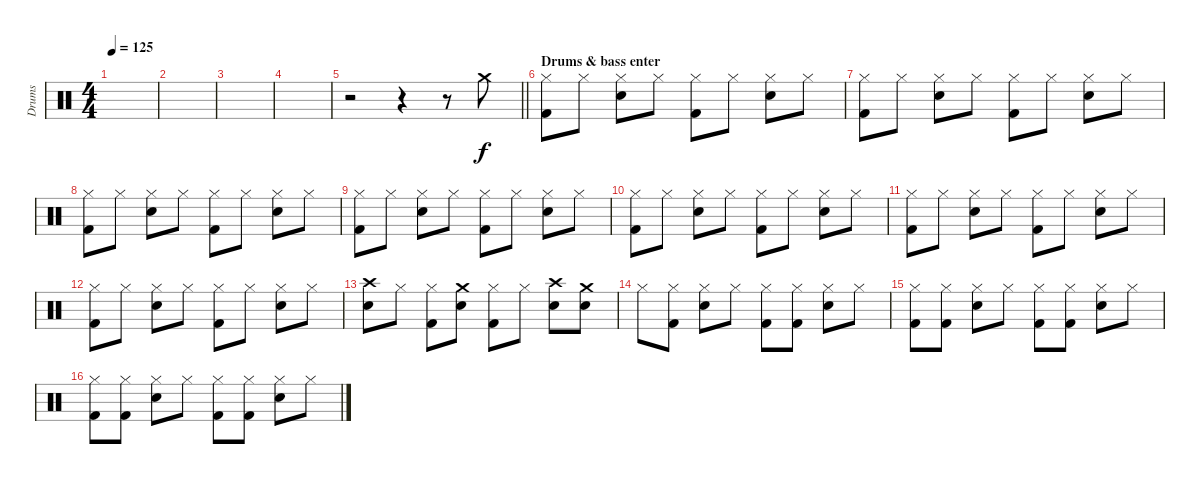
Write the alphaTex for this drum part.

\track ("Drums" "Drums") {instrument percussion}
\staff {score}
\articulation defaults
\ts (4 4)
\tempo 125
\clef neutral
\ks c
|
|
|
|
\barLineRight lightlight
r.2 r.4 r.8 "Crash medium (hit)".8 |
\section ("" "Drums & bass enter")
("Hi-Hat (closed)" "Kick (hit) 2").8 "Hi-Hat (closed)".8 ("Hi-Hat (closed)" "Electric Snare (hit)").8 "Hi-Hat (closed)".8 ("Hi-Hat (closed)" "Kick (hit) 2").8 "Hi-Hat (closed)".8 ("Hi-Hat (closed)" "Electric Snare (hit)").8 "Hi-Hat (closed)".8 |
("Hi-Hat (closed)" "Kick (hit) 2").8 "Hi-Hat (closed)".8 ("Hi-Hat (closed)" "Electric Snare (hit)").8 "Hi-Hat (closed)".8 ("Hi-Hat (closed)" "Kick (hit) 2").8 "Hi-Hat (closed)".8 ("Hi-Hat (closed)" "Electric Snare (hit)").8 "Hi-Hat (closed)".8 |
("Hi-Hat (closed)" "Kick (hit) 2").8 "Hi-Hat (closed)".8 ("Hi-Hat (closed)" "Electric Snare (hit)").8 "Hi-Hat (closed)".8 ("Hi-Hat (closed)" "Kick (hit) 2").8 "Hi-Hat (closed)".8 ("Hi-Hat (closed)" "Electric Snare (hit)").8 "Hi-Hat (closed)".8 |
("Hi-Hat (closed)" "Kick (hit) 2").8 "Hi-Hat (closed)".8 ("Hi-Hat (closed)" "Electric Snare (hit)").8 "Hi-Hat (closed)".8 ("Hi-Hat (closed)" "Kick (hit) 2").8 "Hi-Hat (closed)".8 ("Hi-Hat (closed)" "Electric Snare (hit)").8 "Hi-Hat (closed)".8 |
("Hi-Hat (closed)" "Kick (hit) 2").8 "Hi-Hat (closed)".8 ("Hi-Hat (closed)" "Electric Snare (hit)").8 "Hi-Hat (closed)".8 ("Hi-Hat (closed)" "Kick (hit) 2").8 "Hi-Hat (closed)".8 ("Hi-Hat (closed)" "Electric Snare (hit)").8 "Hi-Hat (closed)".8 |
("Hi-Hat (closed)" "Kick (hit) 2").8 "Hi-Hat (closed)".8 ("Hi-Hat (closed)" "Electric Snare (hit)").8 "Hi-Hat (closed)".8 ("Hi-Hat (closed)" "Kick (hit) 2").8 "Hi-Hat (closed)".8 ("Hi-Hat (closed)" "Electric Snare (hit)").8 "Hi-Hat (closed)".8 |
("Hi-Hat (closed)" "Kick (hit) 2").8 "Hi-Hat (closed)".8 ("Hi-Hat (closed)" "Electric Snare (hit)").8 "Hi-Hat (closed)".8 ("Hi-Hat (closed)" "Kick (hit) 2").8 "Hi-Hat (closed)".8 ("Hi-Hat (closed)" "Electric Snare (hit)").8 "Hi-Hat (closed)".8 |
("Crash high (hit)" "Electric Snare (hit)").8 "Hi-Hat (closed)".8 ("Hi-Hat (closed)" "Kick (hit) 2").8 ("Crash medium (hit)" "Electric Snare (hit)").8 ("Hi-Hat (closed)" "Kick (hit) 2").8 "Hi-Hat (closed)".8 ("Crash high (hit)" "Electric Snare (hit)").8 ("Crash medium (hit)" "Electric Snare (hit)").8 |
"Hi-Hat (closed)".8 ("Hi-Hat (closed)" "Kick (hit) 2").8 ("Hi-Hat (closed)" "Electric Snare (hit)").8 "Hi-Hat (closed)".8 ("Hi-Hat (closed)" "Kick (hit) 2").8 ("Hi-Hat (closed)" "Kick (hit) 2").8 ("Hi-Hat (closed)" "Electric Snare (hit)").8 "Hi-Hat (closed)".8 |
("Hi-Hat (closed)" "Kick (hit) 2").8 ("Hi-Hat (closed)" "Kick (hit) 2").8 ("Hi-Hat (closed)" "Electric Snare (hit)").8 "Hi-Hat (closed)".8 ("Hi-Hat (closed)" "Kick (hit) 2").8 ("Hi-Hat (closed)" "Kick (hit) 2").8 ("Hi-Hat (closed)" "Electric Snare (hit)").8 "Hi-Hat (closed)".8 |
("Hi-Hat (closed)" "Kick (hit) 2").8 ("Hi-Hat (closed)" "Kick (hit) 2").8 ("Hi-Hat (closed)" "Electric Snare (hit)").8 "Hi-Hat (closed)".8 ("Hi-Hat (closed)" "Kick (hit) 2").8 ("Hi-Hat (closed)" "Kick (hit) 2").8 ("Hi-Hat (closed)" "Electric Snare (hit)").8 "Hi-Hat (closed)".8
